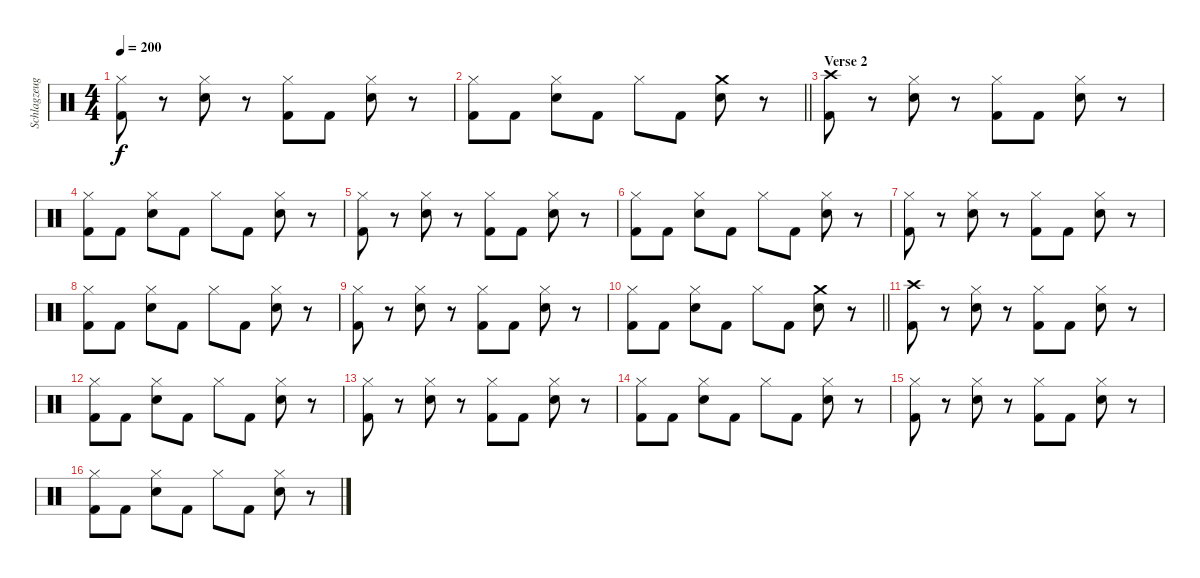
\track ("Schlagzeug" "Schlagzeug") {instrument percussion}
\staff {score}
\articulation defaults
\ts (4 4)
\tempo 200
\clef neutral
\ks c
("Hi-Hat (closed)" "Kick (hit) 2").8{dy f} r.8 ("Hi-Hat (closed)" "Electric Snare (hit)").8 r.8 ("Hi-Hat (closed)" "Kick (hit) 2").8 "Kick (hit) 2".8 ("Hi-Hat (closed)" "Electric Snare (hit)").8 r.8 |
\barLineRight lightlight
("Hi-Hat (closed)" "Kick (hit) 2").8 "Kick (hit) 2".8 ("Hi-Hat (closed)" "Electric Snare (hit)").8 "Kick (hit) 2".8 "Hi-Hat (closed)".8 "Kick (hit) 2".8 ("Crash medium (hit)" "Electric Snare (hit)").8 r.8 |
\section ("" "Verse 2")
("Crash high (hit)" "Kick (hit) 2").8 r.8 ("Hi-Hat (closed)" "Electric Snare (hit)").8 r.8 ("Hi-Hat (closed)" "Kick (hit) 2").8 "Kick (hit) 2".8 ("Hi-Hat (closed)" "Electric Snare (hit)").8 r.8 |
("Hi-Hat (closed)" "Kick (hit) 2").8 "Kick (hit) 2".8 ("Hi-Hat (closed)" "Electric Snare (hit)").8 "Kick (hit) 2".8 "Hi-Hat (closed)".8 "Kick (hit) 2".8 ("Hi-Hat (closed)" "Electric Snare (hit)").8 r.8 |
("Hi-Hat (closed)" "Kick (hit) 2").8 r.8 ("Hi-Hat (closed)" "Electric Snare (hit)").8 r.8 ("Hi-Hat (closed)" "Kick (hit) 2").8 "Kick (hit) 2".8 ("Hi-Hat (closed)" "Electric Snare (hit)").8 r.8 |
("Hi-Hat (closed)" "Kick (hit) 2").8 "Kick (hit) 2".8 ("Hi-Hat (closed)" "Electric Snare (hit)").8 "Kick (hit) 2".8 "Hi-Hat (closed)".8 "Kick (hit) 2".8 ("Hi-Hat (closed)" "Electric Snare (hit)").8 r.8 |
("Hi-Hat (closed)" "Kick (hit) 2").8 r.8 ("Hi-Hat (closed)" "Electric Snare (hit)").8 r.8 ("Hi-Hat (closed)" "Kick (hit) 2").8 "Kick (hit) 2".8 ("Hi-Hat (closed)" "Electric Snare (hit)").8 r.8 |
("Hi-Hat (closed)" "Kick (hit) 2").8 "Kick (hit) 2".8 ("Hi-Hat (closed)" "Electric Snare (hit)").8 "Kick (hit) 2".8 "Hi-Hat (closed)".8 "Kick (hit) 2".8 ("Hi-Hat (closed)" "Electric Snare (hit)").8 r.8 |
("Hi-Hat (closed)" "Kick (hit) 2").8 r.8 ("Hi-Hat (closed)" "Electric Snare (hit)").8 r.8 ("Hi-Hat (closed)" "Kick (hit) 2").8 "Kick (hit) 2".8 ("Hi-Hat (closed)" "Electric Snare (hit)").8 r.8 |
\barLineRight lightlight
("Hi-Hat (closed)" "Kick (hit) 2").8 "Kick (hit) 2".8 ("Hi-Hat (closed)" "Electric Snare (hit)").8 "Kick (hit) 2".8 "Hi-Hat (closed)".8 "Kick (hit) 2".8 ("Crash medium (hit)" "Electric Snare (hit)").8 r.8 |
("Crash high (hit)" "Kick (hit) 2").8 r.8 ("Hi-Hat (closed)" "Electric Snare (hit)").8 r.8 ("Hi-Hat (closed)" "Kick (hit) 2").8 "Kick (hit) 2".8 ("Hi-Hat (closed)" "Electric Snare (hit)").8 r.8 |
("Hi-Hat (closed)" "Kick (hit) 2").8 "Kick (hit) 2".8 ("Hi-Hat (closed)" "Electric Snare (hit)").8 "Kick (hit) 2".8 "Hi-Hat (closed)".8 "Kick (hit) 2".8 ("Hi-Hat (closed)" "Electric Snare (hit)").8 r.8 |
("Hi-Hat (closed)" "Kick (hit) 2").8 r.8 ("Hi-Hat (closed)" "Electric Snare (hit)").8 r.8 ("Hi-Hat (closed)" "Kick (hit) 2").8 "Kick (hit) 2".8 ("Hi-Hat (closed)" "Electric Snare (hit)").8 r.8 |
("Hi-Hat (closed)" "Kick (hit) 2").8 "Kick (hit) 2".8 ("Hi-Hat (closed)" "Electric Snare (hit)").8 "Kick (hit) 2".8 "Hi-Hat (closed)".8 "Kick (hit) 2".8 ("Hi-Hat (closed)" "Electric Snare (hit)").8 r.8 |
("Hi-Hat (closed)" "Kick (hit) 2").8 r.8 ("Hi-Hat (closed)" "Electric Snare (hit)").8 r.8 ("Hi-Hat (closed)" "Kick (hit) 2").8 "Kick (hit) 2".8 ("Hi-Hat (closed)" "Electric Snare (hit)").8 r.8 |
("Hi-Hat (closed)" "Kick (hit) 2").8 "Kick (hit) 2".8 ("Hi-Hat (closed)" "Electric Snare (hit)").8 "Kick (hit) 2".8 "Hi-Hat (closed)".8 "Kick (hit) 2".8 ("Hi-Hat (closed)" "Electric Snare (hit)").8 r.8
